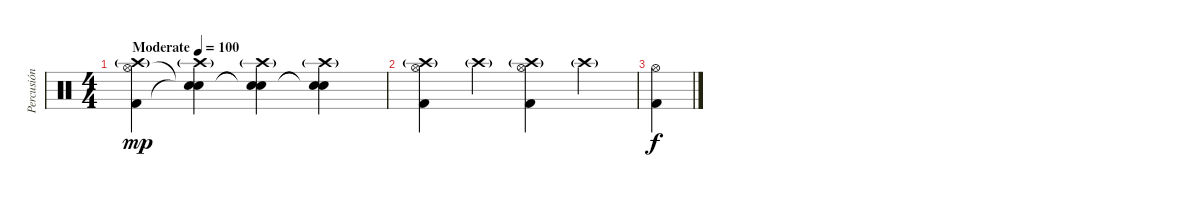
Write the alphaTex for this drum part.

\track ("Percusión" "Percusión") {instrument percussion}
\staff {score}
\articulation defaults
\ts (4 4)
\tempo (100 "Moderate")
\clef neutral
\ks c
("Hi-Hat (open)" "Crash high (hit)"{g} "Kick (hit) 2").4{dy mp} ("Snare (hit)"{t} "Crash high (hit)"{g} "Snare (hit)"{t}).4 ("Snare (hit)"{t} "Crash high (hit)"{g} "Snare (hit)"{t}).4 ("Snare (hit)"{t} "Crash high (hit)"{g} "Snare (hit)"{t}).4 |
("Hi-Hat (open)" "Crash high (hit)"{g} "Kick (hit) 2").4 "Crash high (hit)"{g}.4 ("Hi-Hat (open)" "Crash high (hit)"{g} "Kick (hit) 2").4 "Crash high (hit)"{g}.4 |
("Hi-Hat (open)" "Kick (hit) 2").4{dy f}
